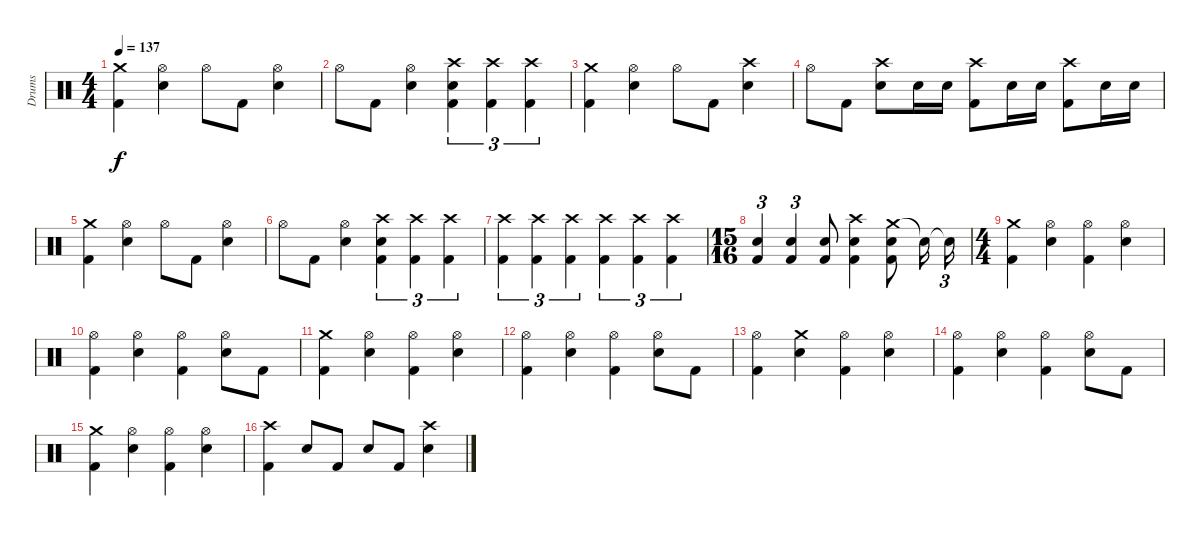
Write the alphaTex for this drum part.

\track ("Drums" "Drums") {instrument percussion}
\staff {score}
\articulation defaults
\ts (4 4)
\tempo 137
\clef neutral
\ks c
("Crash medium (hit)" "Kick (hit) 2").4{dy f} ("Hi-Hat (open)" "Snare (hit) 2").4 "Hi-Hat (open)".8 "Kick (hit) 2".8 ("Hi-Hat (open)" "Snare (hit) 2").4 |
"Hi-Hat (open)".8 "Kick (hit) 2".8 ("Hi-Hat (open)" "Snare (hit) 2").4 ("Crash high (hit)" "Snare (hit) 2" "Kick (hit) 2").4{tu (3 2)} ("Crash high (hit)" "Kick (hit) 2").4{tu (3 2)} ("Crash high (hit)" "Kick (hit) 2").4{tu (3 2)} |
("Crash medium (hit)" "Kick (hit) 2").4 ("Hi-Hat (open)" "Snare (hit) 2").4 "Hi-Hat (open)".8 "Kick (hit) 2".8 ("Crash high (hit)" "Snare (hit) 2").4 |
"Hi-Hat (open)".8 "Kick (hit) 2".8 ("Crash high (hit)" "Snare (hit) 2").8 "Snare (hit) 2".16 "Snare (hit) 2".16 ("Crash high (hit)" "Kick (hit) 2").8 "Snare (hit) 2".16 "Snare (hit) 2".16 ("Crash high (hit)" "Kick (hit) 2").8 "Snare (hit) 2".16 "Snare (hit) 2".16 |
("Crash medium (hit)" "Kick (hit) 2").4 ("Hi-Hat (open)" "Snare (hit) 2").4 "Hi-Hat (open)".8 "Kick (hit) 2".8 ("Hi-Hat (open)" "Snare (hit) 2").4 |
"Hi-Hat (open)".8 "Kick (hit) 2".8 ("Hi-Hat (open)" "Snare (hit) 2").4 ("Crash high (hit)" "Snare (hit) 2" "Kick (hit) 2").4{tu (3 2)} ("Crash high (hit)" "Kick (hit) 2").4{tu (3 2)} ("Crash high (hit)" "Kick (hit) 2").4{tu (3 2)} |
("Crash high (hit)" "Kick (hit) 2").4{tu (3 2)} ("Crash high (hit)" "Kick (hit) 2").4{tu (3 2)} ("Crash high (hit)" "Kick (hit) 2").4{tu (3 2)} ("Crash high (hit)" "Kick (hit) 2").4{tu (3 2)} ("Crash high (hit)" "Kick (hit) 2").4{tu (3 2)} ("Crash high (hit)" "Kick (hit) 2").4{tu (3 2)} |
\ts (15 16)
("Snare (hit) 2" "Kick (hit) 2").4{tu (3 2)} ("Snare (hit) 2" "Kick (hit) 2").4{tu (3 2)} ("Snare (hit) 2" "Kick (hit) 2").8 ("Crash high (hit)" "Snare (hit) 2" "Kick (hit) 2").4 ("Crash medium (hit)" "Snare (hit) 2" "Kick (hit) 2").8 "Snare (hit)"{t}.16 "Snare (hit)"{t}.16{tu (3 2)} |
\ts (4 4)
("Crash medium (hit)" "Kick (hit) 2").4 ("Hi-Hat (open)" "Snare (hit) 2").4 ("Hi-Hat (open)" "Kick (hit) 2").4 ("Hi-Hat (open)" "Snare (hit) 2").4 |
("Hi-Hat (open)" "Kick (hit) 2").4 ("Hi-Hat (open)" "Snare (hit) 2").4 ("Hi-Hat (open)" "Kick (hit) 2").4 ("Hi-Hat (open)" "Snare (hit) 2").8 "Kick (hit) 2".8 |
("Crash medium (hit)" "Kick (hit) 2").4 ("Hi-Hat (open)" "Snare (hit) 2").4 ("Hi-Hat (open)" "Kick (hit) 2").4 ("Hi-Hat (open)" "Snare (hit) 2").4 |
("Hi-Hat (open)" "Kick (hit) 2").4 ("Hi-Hat (open)" "Snare (hit) 2").4 ("Hi-Hat (open)" "Kick (hit) 2").4 ("Hi-Hat (open)" "Snare (hit) 2").8 "Kick (hit) 2".8 |
("Hi-Hat (open)" "Kick (hit) 2").4 ("Crash medium (hit)" "Snare (hit) 2").4 ("Hi-Hat (open)" "Kick (hit) 2").4 ("Hi-Hat (open)" "Snare (hit) 2").4 |
("Hi-Hat (open)" "Kick (hit) 2").4 ("Hi-Hat (open)" "Snare (hit) 2").4 ("Hi-Hat (open)" "Kick (hit) 2").4 ("Hi-Hat (open)" "Snare (hit) 2").8 "Kick (hit) 2".8 |
("Crash medium (hit)" "Kick (hit) 2").4 ("Hi-Hat (open)" "Snare (hit) 2").4 ("Hi-Hat (open)" "Kick (hit) 2").4 ("Hi-Hat (open)" "Snare (hit) 2").4 |
("Crash high (hit)" "Kick (hit) 2").4 "Snare (hit) 2".8 "Kick (hit) 2".8 "Snare (hit) 2".8 "Kick (hit) 2".8 ("Crash high (hit)" "Snare (hit) 2").4
